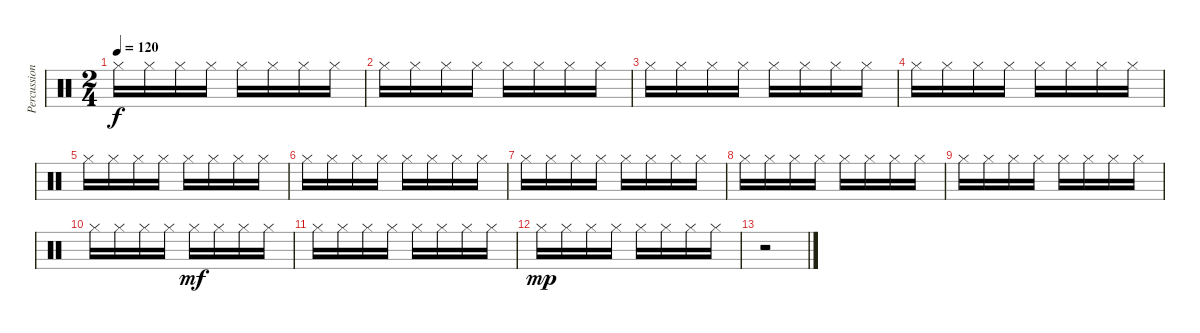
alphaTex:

\track ("Percussion" "Percussion") {instrument percussion}
\staff {score}
\articulation defaults
\ts (2 4)
\tempo 120
\clef neutral
\ks c "Hi-Hat (closed)".16{dy f} "Hi-Hat (closed)".16 "Hi-Hat (closed)".16 "Hi-Hat (closed)".16 "Hi-Hat (closed)".16 "Hi-Hat (closed)".16 "Hi-Hat (closed)".16 "Hi-Hat (closed)".16
|
"Hi-Hat (closed)".16 "Hi-Hat (closed)".16 "Hi-Hat (closed)".16 "Hi-Hat (closed)".16 "Hi-Hat (closed)".16 "Hi-Hat (closed)".16 "Hi-Hat (closed)".16 "Hi-Hat (closed)".16 |
"Hi-Hat (closed)".16 "Hi-Hat (closed)".16 "Hi-Hat (closed)".16 "Hi-Hat (closed)".16 "Hi-Hat (closed)".16 "Hi-Hat (closed)".16 "Hi-Hat (closed)".16 "Hi-Hat (closed)".16 |
"Hi-Hat (closed)".16 "Hi-Hat (closed)".16 "Hi-Hat (closed)".16 "Hi-Hat (closed)".16 "Hi-Hat (closed)".16 "Hi-Hat (closed)".16 "Hi-Hat (closed)".16 "Hi-Hat (closed)".16 |
"Hi-Hat (closed)".16 "Hi-Hat (closed)".16 "Hi-Hat (closed)".16 "Hi-Hat (closed)".16 "Hi-Hat (closed)".16 "Hi-Hat (closed)".16 "Hi-Hat (closed)".16 "Hi-Hat (closed)".16 |
"Hi-Hat (closed)".16 "Hi-Hat (closed)".16 "Hi-Hat (closed)".16 "Hi-Hat (closed)".16 "Hi-Hat (closed)".16 "Hi-Hat (closed)".16 "Hi-Hat (closed)".16 "Hi-Hat (closed)".16 |
"Hi-Hat (closed)".16 "Hi-Hat (closed)".16 "Hi-Hat (closed)".16 "Hi-Hat (closed)".16 "Hi-Hat (closed)".16 "Hi-Hat (closed)".16 "Hi-Hat (closed)".16 "Hi-Hat (closed)".16 |
"Hi-Hat (closed)".16 "Hi-Hat (closed)".16 "Hi-Hat (closed)".16 "Hi-Hat (closed)".16 "Hi-Hat (closed)".16 "Hi-Hat (closed)".16 "Hi-Hat (closed)".16 "Hi-Hat (closed)".16 |
"Hi-Hat (closed)".16 "Hi-Hat (closed)".16 "Hi-Hat (closed)".16 "Hi-Hat (closed)".16 "Hi-Hat (closed)".16 "Hi-Hat (closed)".16 "Hi-Hat (closed)".16 "Hi-Hat (closed)".16 |
"Hi-Hat (closed)".16 "Hi-Hat (closed)".16 "Hi-Hat (closed)".16 "Hi-Hat (closed)".16 "Hi-Hat (closed)".16{dy mf} "Hi-Hat (closed)".16 "Hi-Hat (closed)".16 "Hi-Hat (closed)".16 |
"Hi-Hat (closed)".16 "Hi-Hat (closed)".16 "Hi-Hat (closed)".16 "Hi-Hat (closed)".16 "Hi-Hat (closed)".16 "Hi-Hat (closed)".16 "Hi-Hat (closed)".16 "Hi-Hat (closed)".16 |
"Hi-Hat (closed)".16{dy mp} "Hi-Hat (closed)".16 "Hi-Hat (closed)".16 "Hi-Hat (closed)".16 "Hi-Hat (closed)".16 "Hi-Hat (closed)".16 "Hi-Hat (closed)".16 "Hi-Hat (closed)".16 |
r.2
